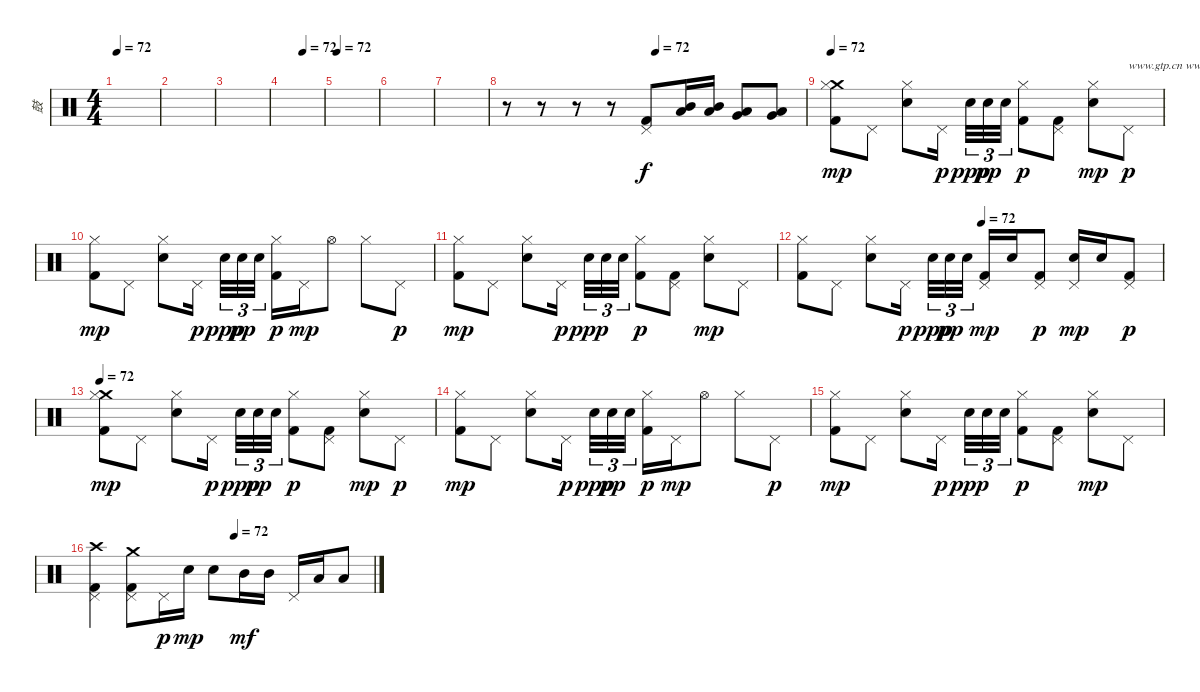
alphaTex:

\track ("鼓" "鼓") {instrument percussion}
\staff {score}
\articulation defaults
\ts (4 4)
\tempo 72
\clef neutral
\ks c
|
|
|
\tempo (72 0.5)
|
\tempo 72
|
|
|
\tempo (72 0.5)
r.8 r.8 r.8 r.8 ("Pedal Hi-Hat (hit)" "Kick (hit) 2").8{dy f} ("Low Tom (hit)" "Mid Tom (hit)").16 ("Low Tom (hit)" "Mid Tom (hit)").16 ("Very Low Tom (hit)" "Low Tom (hit)").8 ("Very Low Tom (hit)" "Low Tom (hit)").8 |
\tempo 72
("Crash medium (hit)" "Hi-Hat (closed)" "Kick (hit) 2").8{dy mp} "Pedal Hi-Hat (hit)".8 ("Hi-Hat (closed)" "Electric Snare (hit)").8 "Pedal Hi-Hat (hit)".16{dy p beam splitsecondary} "Electric Snare (hit)".32{tu (3 2) dy ppp} "Electric Snare (hit)".32{tu (3 2) dy pp} "Electric Snare (hit)".32{tu (3 2)} ("Hi-Hat (closed)" "Kick (hit) 2").8{dy p} ("Pedal Hi-Hat (hit)" "Kick (hit) 2").8 ("Hi-Hat (closed)" "Electric Snare (hit)").8{dy mp} "Pedal Hi-Hat (hit)".8{txt "www.gtp.cn www.51gtp.com联合为您提供优秀的GTP!" dy p} |
("Hi-Hat (closed)" "Kick (hit) 2").8{dy mp} "Pedal Hi-Hat (hit)".8 ("Hi-Hat (closed)" "Electric Snare (hit)").8 "Pedal Hi-Hat (hit)".16{dy p beam splitsecondary} "Electric Snare (hit)".32{tu (3 2) dy ppp} "Electric Snare (hit)".32{tu (3 2) dy pp} "Electric Snare (hit)".32{tu (3 2)} ("Hi-Hat (closed)" "Kick (hit) 2").16{dy p} "Pedal Hi-Hat (hit)".16{dy mp} "Hi-Hat (open)".8 "Hi-Hat (closed)".8 "Pedal Hi-Hat (hit)".8{dy p} |
("Hi-Hat (closed)" "Kick (hit) 2").8{dy mp} "Pedal Hi-Hat (hit)".8 ("Hi-Hat (closed)" "Electric Snare (hit)").8 "Pedal Hi-Hat (hit)".16{dy p beam splitsecondary} "Electric Snare (hit)".32{tu (3 2) dy ppp} "Electric Snare (hit)".32{tu (3 2)} "Electric Snare (hit)".32{tu (3 2)} ("Hi-Hat (closed)" "Kick (hit) 2").8{dy p} ("Pedal Hi-Hat (hit)" "Kick (hit) 2").8 ("Hi-Hat (closed)" "Electric Snare (hit)").8{dy mp} "Pedal Hi-Hat (hit)".8 |
\tempo (72 0.5)
("Hi-Hat (closed)" "Kick (hit) 2").8 "Pedal Hi-Hat (hit)".8 ("Hi-Hat (closed)" "Electric Snare (hit)").8 "Pedal Hi-Hat (hit)".16{dy p beam splitsecondary} "Electric Snare (hit)".32{tu (3 2) dy ppp} "Electric Snare (hit)".32{tu (3 2) dy pp} "Electric Snare (hit)".32{tu (3 2)} ("Pedal Hi-Hat (hit)" "Kick (hit) 2").16{dy mp} "Electric Snare (hit)".16 ("Pedal Hi-Hat (hit)" "Kick (hit) 2").8{dy p} ("Pedal Hi-Hat (hit)" "Electric Snare (hit)").16{dy mp} "Electric Snare (hit)".16 ("Pedal Hi-Hat (hit)" "Kick (hit) 2").8{dy p} |
\tempo 72
("Crash medium (hit)" "Hi-Hat (closed)" "Kick (hit) 2").8{dy mp} "Pedal Hi-Hat (hit)".8 ("Hi-Hat (closed)" "Electric Snare (hit)").8 "Pedal Hi-Hat (hit)".16{dy p beam splitsecondary} "Electric Snare (hit)".32{tu (3 2) dy ppp} "Electric Snare (hit)".32{tu (3 2) dy pp} "Electric Snare (hit)".32{tu (3 2)} ("Hi-Hat (closed)" "Kick (hit) 2").8{dy p} ("Pedal Hi-Hat (hit)" "Kick (hit) 2").8 ("Hi-Hat (closed)" "Electric Snare (hit)").8{dy mp} "Pedal Hi-Hat (hit)".8{dy p} |
("Hi-Hat (closed)" "Kick (hit) 2").8{dy mp} "Pedal Hi-Hat (hit)".8 ("Hi-Hat (closed)" "Electric Snare (hit)").8 "Pedal Hi-Hat (hit)".16{dy p beam splitsecondary} "Electric Snare (hit)".32{tu (3 2) dy ppp} "Electric Snare (hit)".32{tu (3 2) dy pp} "Electric Snare (hit)".32{tu (3 2)} ("Hi-Hat (closed)" "Kick (hit) 2").16{dy p} "Pedal Hi-Hat (hit)".16{dy mp} "Hi-Hat (open)".8 "Hi-Hat (closed)".8 "Pedal Hi-Hat (hit)".8{dy p} |
("Hi-Hat (closed)" "Kick (hit) 2").8{dy mp} "Pedal Hi-Hat (hit)".8 ("Hi-Hat (closed)" "Electric Snare (hit)").8 "Pedal Hi-Hat (hit)".16{dy p beam splitsecondary} "Electric Snare (hit)".32{tu (3 2) dy ppp} "Electric Snare (hit)".32{tu (3 2)} "Electric Snare (hit)".32{tu (3 2)} ("Hi-Hat (closed)" "Kick (hit) 2").8{dy p} ("Pedal Hi-Hat (hit)" "Kick (hit) 2").8 ("Hi-Hat (closed)" "Electric Snare (hit)").8{dy mp} "Pedal Hi-Hat (hit)".8 |
\tempo (72 0.5)
("Crash high (hit)" "Pedal Hi-Hat (hit)" "Kick (hit) 2").4 ("Crash medium (hit)" "Pedal Hi-Hat (hit)" "Kick (hit) 2").8 "Pedal Hi-Hat (hit)".16{dy p} "Electric Snare (hit)".16{dy mp} "Electric Snare (hit)".8 "Mid Tom (hit)".16{dy mf} "Mid Tom (hit)".16 "Pedal Hi-Hat (hit)".16 "Low Tom (hit)".16 "Low Tom (hit)".8
